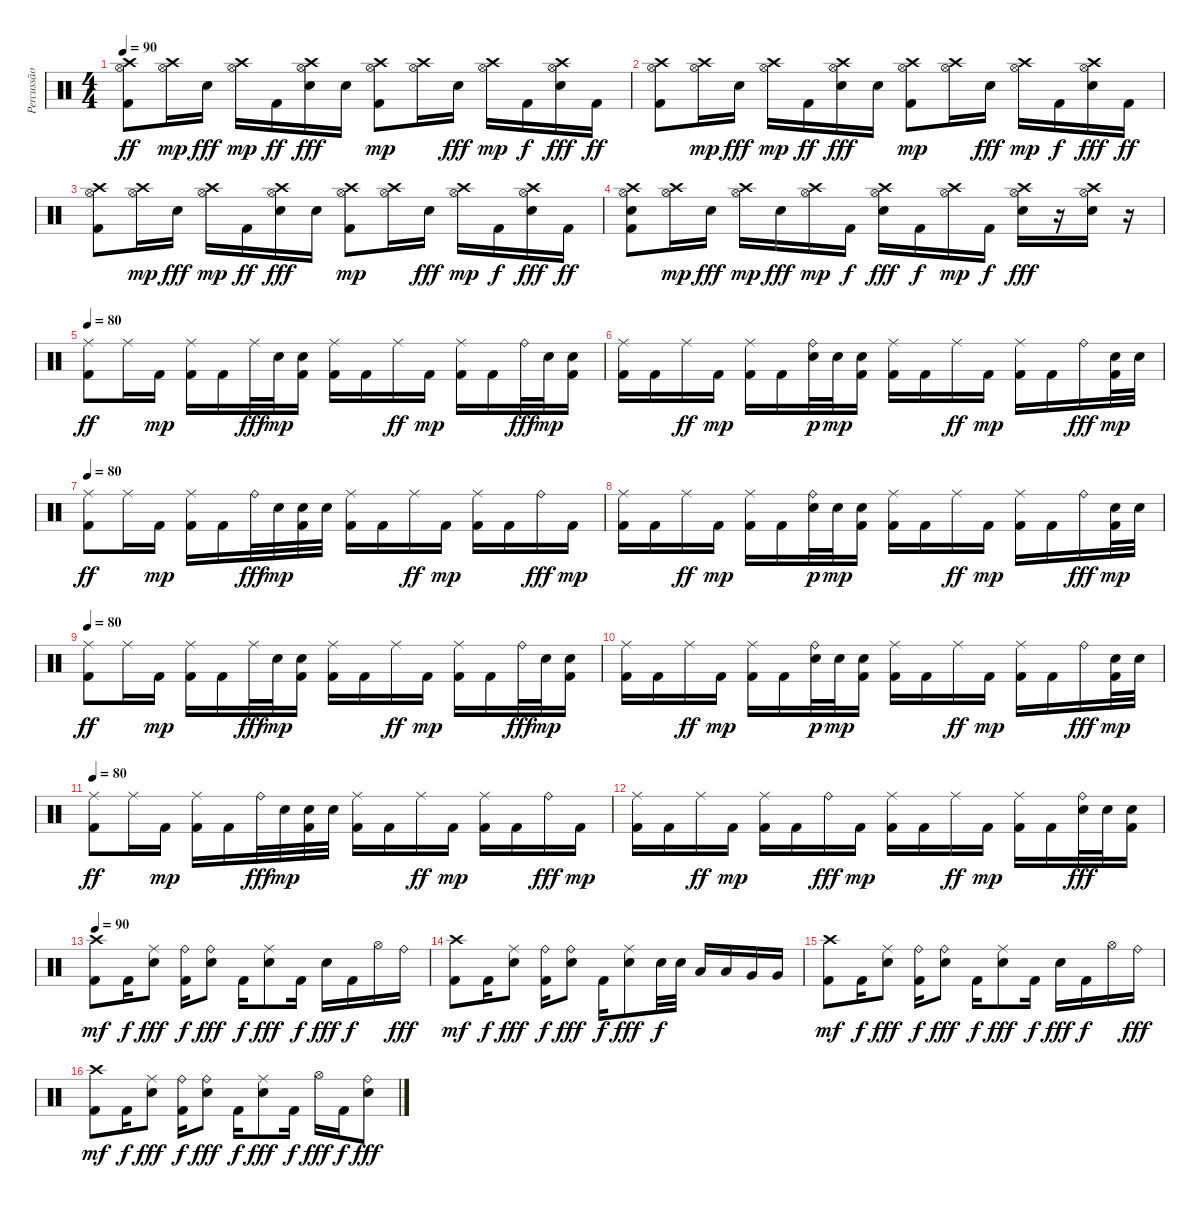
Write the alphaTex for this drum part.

\track ("Percussão" "Percussão") {instrument percussion}
\staff {score}
\articulation defaults
\ts (4 4)
\tempo 90
\clef neutral
\ks c
("Hi-Hat (open)" "Crash high (hit)" "Kick (hit) 2").8{dy ff} ("Hi-Hat (open)" "Crash high (hit)").16{dy mp} "Electric Snare (hit)".16{dy fff} ("Hi-Hat (open)" "Crash high (hit)").16{dy mp} "Kick (hit) 2".16{dy ff} ("Hi-Hat (open)" "Crash high (hit)" "Electric Snare (hit)").16{dy fff} "Electric Snare (hit)".16 ("Hi-Hat (open)" "Crash high (hit)" "Kick (hit) 2").8{dy mp} ("Hi-Hat (open)" "Crash high (hit)").16 "Electric Snare (hit)".16{dy fff} ("Hi-Hat (open)" "Crash high (hit)").16{dy mp} "Kick (hit) 2".16{dy f} ("Hi-Hat (open)" "Crash high (hit)" "Electric Snare (hit)").16{dy fff} "Kick (hit) 2".16{dy ff} |
("Hi-Hat (open)" "Crash high (hit)" "Kick (hit) 2").8 ("Hi-Hat (open)" "Crash high (hit)").16{dy mp} "Electric Snare (hit)".16{dy fff} ("Hi-Hat (open)" "Crash high (hit)").16{dy mp} "Kick (hit) 2".16{dy ff} ("Hi-Hat (open)" "Crash high (hit)" "Electric Snare (hit)").16{dy fff} "Electric Snare (hit)".16 ("Hi-Hat (open)" "Crash high (hit)" "Kick (hit) 2").8{dy mp} ("Hi-Hat (open)" "Crash high (hit)").16 "Electric Snare (hit)".16{dy fff} ("Hi-Hat (open)" "Crash high (hit)").16{dy mp} "Kick (hit) 2".16{dy f} ("Hi-Hat (open)" "Crash high (hit)" "Electric Snare (hit)").16{dy fff} "Kick (hit) 2".16{dy ff} |
("Hi-Hat (open)" "Crash high (hit)" "Kick (hit) 2").8 ("Hi-Hat (open)" "Crash high (hit)").16{dy mp} "Electric Snare (hit)".16{dy fff} ("Hi-Hat (open)" "Crash high (hit)").16{dy mp} "Kick (hit) 2".16{dy ff} ("Hi-Hat (open)" "Crash high (hit)" "Electric Snare (hit)").16{dy fff} "Electric Snare (hit)".16 ("Hi-Hat (open)" "Crash high (hit)" "Kick (hit) 2").8{dy mp} ("Hi-Hat (open)" "Crash high (hit)").16 "Electric Snare (hit)".16{dy fff} ("Hi-Hat (open)" "Crash high (hit)").16{dy mp} "Kick (hit) 2".16{dy f} ("Hi-Hat (open)" "Crash high (hit)" "Electric Snare (hit)").16{dy fff} "Kick (hit) 2".16{dy ff} |
("Hi-Hat (open)" "Crash high (hit)" "Electric Snare (hit)" "Kick (hit) 2").8 ("Hi-Hat (open)" "Crash high (hit)").16{dy mp} "Electric Snare (hit)".16{dy fff} ("Hi-Hat (open)" "Crash high (hit)").16{dy mp} "Electric Snare (hit)".16{dy fff} ("Hi-Hat (open)" "Crash high (hit)").16{dy mp} "Kick (hit) 2".16{dy f} ("Hi-Hat (open)" "Crash high (hit)" "Electric Snare (hit)").16{dy fff} "Kick (hit) 2".16{dy f} ("Hi-Hat (open)" "Crash high (hit)").16{dy mp} "Kick (hit) 2".16{dy f} ("Hi-Hat (open)" "Crash high (hit)" "Electric Snare (hit)").16{dy fff} r.16 ("Hi-Hat (open)" "Crash high (hit)" "Electric Snare (hit)").16 r.16 |
\tempo 80
("Ride (middle)" "Kick (hit) 2").8{dy ff} "Ride (middle)".16 "Kick (hit) 2".16{dy mp} ("Ride (middle)" "Kick (hit) 2").16 "Kick (hit) 2".16 "Ride (middle)".32{dy fff} "Electric Snare (hit)".32{dy mp} ("Electric Snare (hit)" "Kick (hit) 2").16 ("Ride (middle)" "Kick (hit) 2").16 "Kick (hit) 2".16 "Ride (middle)".16{dy ff} "Kick (hit) 2".16{dy mp} ("Ride (middle)" "Kick (hit) 2").16 "Kick (hit) 2".16 "Ride (bell)".32{dy fff} "Electric Snare (hit)".32{dy mp} ("Electric Snare (hit)" "Kick (hit) 2").16 |
("Ride (middle)" "Kick (hit) 2").16 "Kick (hit) 2".16 "Ride (middle)".16{dy ff} "Kick (hit) 2".16{dy mp} ("Ride (middle)" "Kick (hit) 2").16 "Kick (hit) 2".16 ("Ride (bell)" "Electric Snare (hit)").32{dy p} "Electric Snare (hit)".32{dy mp} ("Electric Snare (hit)" "Kick (hit) 2").16 ("Ride (middle)" "Kick (hit) 2").16 "Kick (hit) 2".16 "Ride (middle)".16{dy ff} "Kick (hit) 2".16{dy mp} ("Ride (middle)" "Kick (hit) 2").16 "Kick (hit) 2".16 "Ride (bell)".16{dy fff} ("Electric Snare (hit)" "Kick (hit) 2").32{dy mp} "Electric Snare (hit)".32 |
\tempo 80
("Ride (middle)" "Kick (hit) 2").8{dy ff} "Ride (middle)".16 "Kick (hit) 2".16{dy mp} ("Ride (middle)" "Kick (hit) 2").16 "Kick (hit) 2".16 "Ride (bell)".32{dy fff} "Electric Snare (hit)".32{dy mp} ("Electric Snare (hit)" "Kick (hit) 2").32 "Electric Snare (hit)".32 ("Ride (middle)" "Kick (hit) 2").16 "Kick (hit) 2".16 "Ride (middle)".16{dy ff} "Kick (hit) 2".16{dy mp} ("Ride (middle)" "Kick (hit) 2").16 "Kick (hit) 2".16 "Ride (bell)".16{dy fff} "Kick (hit) 2".16{dy mp} |
("Ride (middle)" "Kick (hit) 2").16 "Kick (hit) 2".16 "Ride (middle)".16{dy ff} "Kick (hit) 2".16{dy mp} ("Ride (middle)" "Kick (hit) 2").16 "Kick (hit) 2".16 ("Ride (bell)" "Electric Snare (hit)").32{dy p} "Electric Snare (hit)".32{dy mp} ("Electric Snare (hit)" "Kick (hit) 2").16 ("Ride (middle)" "Kick (hit) 2").16 "Kick (hit) 2".16 "Ride (middle)".16{dy ff} "Kick (hit) 2".16{dy mp} ("Ride (middle)" "Kick (hit) 2").16 "Kick (hit) 2".16 "Ride (bell)".16{dy fff} ("Electric Snare (hit)" "Kick (hit) 2").32{dy mp} "Electric Snare (hit)".32 |
\tempo 80
("Ride (middle)" "Kick (hit) 2").8{dy ff} "Ride (middle)".16 "Kick (hit) 2".16{dy mp} ("Ride (middle)" "Kick (hit) 2").16 "Kick (hit) 2".16 "Ride (middle)".32{dy fff} "Electric Snare (hit)".32{dy mp} ("Electric Snare (hit)" "Kick (hit) 2").16 ("Ride (middle)" "Kick (hit) 2").16 "Kick (hit) 2".16 "Ride (middle)".16{dy ff} "Kick (hit) 2".16{dy mp} ("Ride (middle)" "Kick (hit) 2").16 "Kick (hit) 2".16 "Ride (bell)".32{dy fff} "Electric Snare (hit)".32{dy mp} ("Electric Snare (hit)" "Kick (hit) 2").16 |
("Ride (middle)" "Kick (hit) 2").16 "Kick (hit) 2".16 "Ride (middle)".16{dy ff} "Kick (hit) 2".16{dy mp} ("Ride (middle)" "Kick (hit) 2").16 "Kick (hit) 2".16 ("Ride (bell)" "Electric Snare (hit)").32{dy p} "Electric Snare (hit)".32{dy mp} ("Electric Snare (hit)" "Kick (hit) 2").16 ("Ride (middle)" "Kick (hit) 2").16 "Kick (hit) 2".16 "Ride (middle)".16{dy ff} "Kick (hit) 2".16{dy mp} ("Ride (middle)" "Kick (hit) 2").16 "Kick (hit) 2".16 "Ride (bell)".16{dy fff} ("Electric Snare (hit)" "Kick (hit) 2").32{dy mp} "Electric Snare (hit)".32 |
\tempo 80
("Ride (middle)" "Kick (hit) 2").8{dy ff} "Ride (middle)".16 "Kick (hit) 2".16{dy mp} ("Ride (middle)" "Kick (hit) 2").16 "Kick (hit) 2".16 "Ride (bell)".32{dy fff} "Electric Snare (hit)".32{dy mp} ("Electric Snare (hit)" "Kick (hit) 2").32 "Electric Snare (hit)".32 ("Ride (middle)" "Kick (hit) 2").16 "Kick (hit) 2".16 "Ride (middle)".16{dy ff} "Kick (hit) 2".16{dy mp} ("Ride (middle)" "Kick (hit) 2").16 "Kick (hit) 2".16 "Ride (bell)".16{dy fff} "Kick (hit) 2".16{dy mp} |
("Ride (middle)" "Kick (hit) 2").16 "Kick (hit) 2".16 "Ride (middle)".16{dy ff} "Kick (hit) 2".16{dy mp} ("Ride (middle)" "Kick (hit) 2").16 "Kick (hit) 2".16 "Ride (bell)".16{dy fff} "Kick (hit) 2".16{dy mp} ("Ride (middle)" "Kick (hit) 2").16 "Kick (hit) 2".16 "Ride (middle)".16{dy ff} "Kick (hit) 2".16{dy mp} ("Ride (middle)" "Kick (hit) 2").16 "Kick (hit) 2".16 ("Ride (bell)" "Electric Snare (hit)").32{dy fff} "Electric Snare (hit)".32 ("Electric Snare (hit)" "Kick (hit) 2").16 |
\tempo 90
("Crash high (hit)" "Kick (hit) 2").8{dy mf} "Kick (hit) 2".16{dy f} ("Ride (middle)" "Electric Snare (hit)").8{dy fff} ("Ride (bell)" "Kick (hit) 2").16{dy f} ("Ride (bell)" "Electric Snare (hit)").8{dy fff} "Kick (hit) 2".16{dy f} ("Ride (middle)" "Electric Snare (hit)").8{dy fff} "Kick (hit) 2".16{dy f} "Electric Snare (hit)".16{dy fff} "Kick (hit) 2".16{dy f} "Hi-Hat (open)".16 "Ride (bell)".16{dy fff} |
("Crash high (hit)" "Kick (hit) 2").8{dy mf} "Kick (hit) 2".16{dy f} ("Ride (middle)" "Electric Snare (hit)").8{dy fff} ("Ride (bell)" "Kick (hit) 2").16{dy f} ("Ride (bell)" "Electric Snare (hit)").8{dy fff} "Kick (hit) 2".16{dy f} ("Ride (middle)" "Electric Snare (hit)").8{dy fff} "Electric Snare (hit)".32{dy f} "Electric Snare (hit)".32 "Low Tom (hit)".16 "Low Tom (hit)".16 "Very Low Tom (hit)".16 "Very Low Tom (hit)".16 |
("Crash high (hit)" "Kick (hit) 2").8{dy mf} "Kick (hit) 2".16{dy f} ("Ride (middle)" "Electric Snare (hit)").8{dy fff} ("Ride (bell)" "Kick (hit) 2").16{dy f} ("Ride (bell)" "Electric Snare (hit)").8{dy fff} "Kick (hit) 2".16{dy f} ("Ride (middle)" "Electric Snare (hit)").8{dy fff} "Kick (hit) 2".16{dy f} "Electric Snare (hit)".16{dy fff} "Kick (hit) 2".16{dy f} "Hi-Hat (open)".16 "Ride (bell)".16{dy fff} |
("Crash high (hit)" "Kick (hit) 2").8{dy mf} "Kick (hit) 2".16{dy f} ("Ride (middle)" "Electric Snare (hit)").8{dy fff} ("Ride (bell)" "Kick (hit) 2").16{dy f} ("Ride (bell)" "Electric Snare (hit)").8{dy fff} "Kick (hit) 2".16{dy f} ("Ride (middle)" "Electric Snare (hit)").8{dy fff} "Kick (hit) 2".16{dy f} "Hi-Hat (open)".16{dy fff} "Kick (hit) 2".16{dy f} ("Ride (bell)" "Electric Snare (hit)").8{dy fff}
